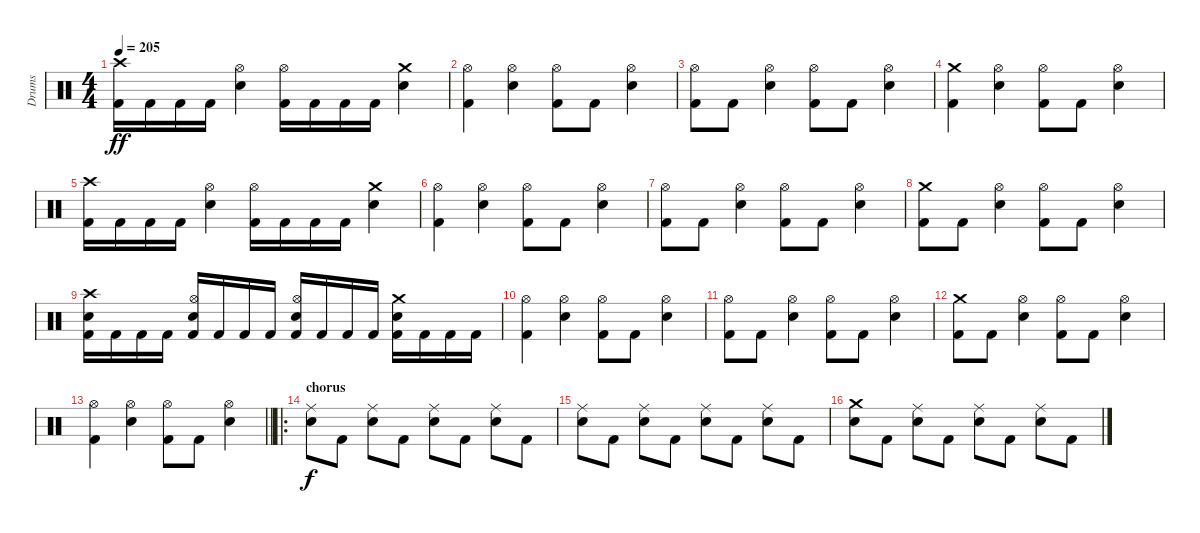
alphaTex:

\track ("Drums" "Drums") {instrument percussion}
\staff {score}
\articulation defaults
\ts (4 4)
\tempo 205
\clef neutral
\ks c
("Crash high (hit)" "Kick (hit) 2").16{dy ff} "Kick (hit) 2".16 "Kick (hit) 2".16 "Kick (hit) 2".16 ("Hi-Hat (open)" "Snare (hit) 2").4 ("Hi-Hat (open)" "Kick (hit) 2").16 "Kick (hit) 2".16 "Kick (hit) 2".16 "Kick (hit) 2".16 ("Crash medium (hit)" "Snare (hit) 2").4 |
("Hi-Hat (open)" "Kick (hit) 2").4 ("Hi-Hat (open)" "Snare (hit) 2").4 ("Hi-Hat (open)" "Kick (hit) 2").8 "Kick (hit) 2".8 ("Hi-Hat (open)" "Snare (hit) 2").4 |
("Hi-Hat (open)" "Kick (hit) 2").8 "Kick (hit) 2".8 ("Hi-Hat (open)" "Snare (hit) 2").4 ("Hi-Hat (open)" "Kick (hit) 2").8 "Kick (hit) 2".8 ("Hi-Hat (open)" "Snare (hit) 2").4 |
("Crash medium (hit)" "Kick (hit) 2").4 ("Hi-Hat (open)" "Snare (hit) 2").4 ("Hi-Hat (open)" "Kick (hit) 2").8 "Kick (hit) 2".8 ("Hi-Hat (open)" "Snare (hit) 2").4 |
("Crash high (hit)" "Kick (hit) 2").16 "Kick (hit) 2".16 "Kick (hit) 2".16 "Kick (hit) 2".16 ("Hi-Hat (open)" "Snare (hit) 2").4 ("Hi-Hat (open)" "Kick (hit) 2").16 "Kick (hit) 2".16 "Kick (hit) 2".16 "Kick (hit) 2".16 ("Crash medium (hit)" "Snare (hit) 2").4 |
("Hi-Hat (open)" "Kick (hit) 2").4 ("Hi-Hat (open)" "Snare (hit) 2").4 ("Hi-Hat (open)" "Kick (hit) 2").8 "Kick (hit) 2".8 ("Hi-Hat (open)" "Snare (hit) 2").4 |
("Hi-Hat (open)" "Kick (hit) 2").8 "Kick (hit) 2".8 ("Hi-Hat (open)" "Snare (hit) 2").4 ("Hi-Hat (open)" "Kick (hit) 2").8 "Kick (hit) 2".8 ("Hi-Hat (open)" "Snare (hit) 2").4 |
("Crash medium (hit)" "Kick (hit) 2").8 "Kick (hit) 2".8 ("Hi-Hat (open)" "Snare (hit) 2").4 ("Hi-Hat (open)" "Kick (hit) 2").8 "Kick (hit) 2".8 ("Hi-Hat (open)" "Snare (hit) 2").4 |
("Crash high (hit)" "Snare (hit) 2" "Kick (hit) 2").16 "Kick (hit) 2".16 "Kick (hit) 2".16 "Kick (hit) 2".16 ("Hi-Hat (open)" "Snare (hit) 2" "Kick (hit) 2").16 "Kick (hit) 2".16 "Kick (hit) 2".16 "Kick (hit) 2".16 ("Hi-Hat (open)" "Snare (hit) 2" "Kick (hit) 2").16 "Kick (hit) 2".16 "Kick (hit) 2".16 "Kick (hit) 2".16 ("Crash medium (hit)" "Snare (hit) 2" "Kick (hit) 2").16 "Kick (hit) 2".16 "Kick (hit) 2".16 "Kick (hit) 2".16 |
("Hi-Hat (open)" "Kick (hit) 2").4 ("Hi-Hat (open)" "Snare (hit) 2").4 ("Hi-Hat (open)" "Kick (hit) 2").8 "Kick (hit) 2".8 ("Hi-Hat (open)" "Snare (hit) 2").4 |
("Hi-Hat (open)" "Kick (hit) 2").8 "Kick (hit) 2".8 ("Hi-Hat (open)" "Snare (hit) 2").4 ("Hi-Hat (open)" "Kick (hit) 2").8 "Kick (hit) 2".8 ("Hi-Hat (open)" "Snare (hit) 2").4 |
("Crash medium (hit)" "Kick (hit) 2").8 "Kick (hit) 2".8 ("Hi-Hat (open)" "Snare (hit) 2").4 ("Hi-Hat (open)" "Kick (hit) 2").8 "Kick (hit) 2".8 ("Hi-Hat (open)" "Snare (hit) 2").4 |
\barLineRight lightlight
("Hi-Hat (open)" "Kick (hit) 2").4 ("Hi-Hat (open)" "Snare (hit) 2").4 ("Hi-Hat (open)" "Kick (hit) 2").8 "Kick (hit) 2".8 ("Hi-Hat (open)" "Snare (hit) 2").4 |
\ro
\section ("" "chorus")
("Ride (middle)" "Snare (hit) 2").8{dy f} "Kick (hit) 2".8 ("Ride (middle)" "Snare (hit) 2").8 "Kick (hit) 2".8 ("Ride (middle)" "Snare (hit) 2").8 "Kick (hit) 2".8 ("Ride (middle)" "Snare (hit) 2").8 "Kick (hit) 2".8 |
("Ride (middle)" "Snare (hit) 2").8 "Kick (hit) 2".8 ("Ride (middle)" "Snare (hit) 2").8 "Kick (hit) 2".8 ("Ride (middle)" "Snare (hit) 2").8 "Kick (hit) 2".8 ("Ride (middle)" "Snare (hit) 2").8 "Kick (hit) 2".8 |
("Crash medium (hit)" "Snare (hit) 2").8 "Kick (hit) 2".8 ("Ride (middle)" "Snare (hit) 2").8 "Kick (hit) 2".8 ("Ride (middle)" "Snare (hit) 2").8 "Kick (hit) 2".8 ("Ride (middle)" "Snare (hit) 2").8 "Kick (hit) 2".8
